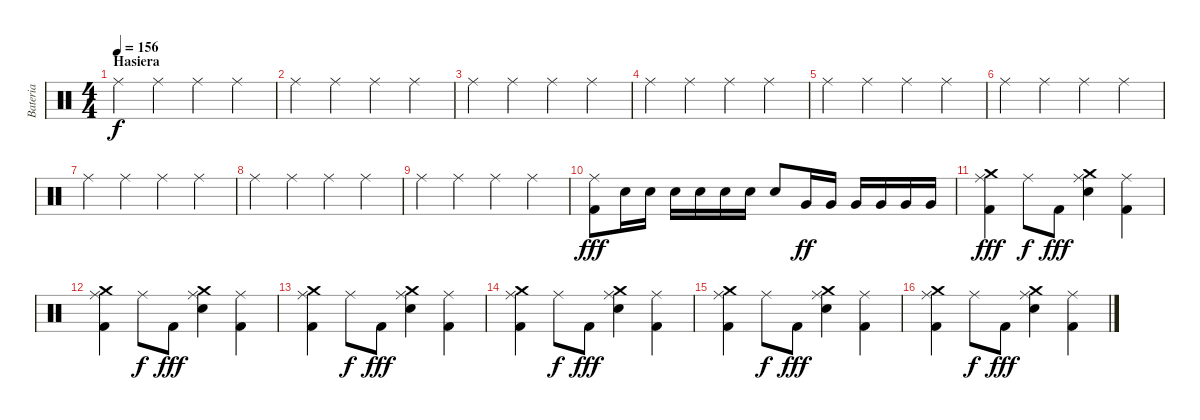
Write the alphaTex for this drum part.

\track ("Bateria" "Bateria") {instrument percussion}
\staff {score}
\articulation defaults
\ts (4 4)
\section ("" "Hasiera")
\tempo 156
\clef neutral
\ks c "Ride (middle)".4{dy f} "Ride (middle)".4 "Ride (middle)".4 "Ride (middle)".4
|
"Ride (middle)".4 "Ride (middle)".4 "Ride (middle)".4 "Ride (middle)".4 |
"Ride (middle)".4 "Ride (middle)".4 "Ride (middle)".4 "Ride (middle)".4 |
"Ride (middle)".4 "Ride (middle)".4 "Ride (middle)".4 "Ride (middle)".4 |
"Ride (middle)".4 "Ride (middle)".4 "Ride (middle)".4 "Ride (middle)".4 |
"Ride (middle)".4 "Ride (middle)".4 "Ride (middle)".4 "Ride (middle)".4 |
"Ride (middle)".4 "Ride (middle)".4 "Ride (middle)".4 "Ride (middle)".4 |
"Ride (middle)".4 "Ride (middle)".4 "Ride (middle)".4 "Ride (middle)".4 |
"Ride (middle)".4 "Ride (middle)".4 "Ride (middle)".4 "Ride (middle)".4 |
("Ride (middle)" "Kick (hit) 2").8{dy fff} "Electric Snare (hit)".16 "Electric Snare (hit)".16 "Electric Snare (hit)".16 "Electric Snare (hit)".16 "Electric Snare (hit)".16 "Electric Snare (hit)".16 "Electric Snare (hit)".8 "Very Low Tom (hit)".16{dy ff} "Very Low Tom (hit)".16 "Very Low Tom (hit)".16 "Very Low Tom (hit)".16 "Very Low Tom (hit)".16 "Very Low Tom (hit)".16 |
("Ride (middle)" "Kick (hit) 2" "Crash medium (hit)").4{dy fff} "Ride (middle)".8{dy f} "Kick (hit) 2".8{dy fff} ("Ride (middle)" "Electric Snare (hit)" "Crash medium (hit)").4 ("Ride (middle)" "Kick (hit) 2").4 |
("Ride (middle)" "Kick (hit) 2" "Crash medium (hit)").4 "Ride (middle)".8{dy f} "Kick (hit) 2".8{dy fff} ("Ride (middle)" "Electric Snare (hit)" "Crash medium (hit)").4 ("Ride (middle)" "Kick (hit) 2").4 |
("Ride (middle)" "Kick (hit) 2" "Crash medium (hit)").4 "Ride (middle)".8{dy f} "Kick (hit) 2".8{dy fff} ("Ride (middle)" "Electric Snare (hit)" "Crash medium (hit)").4 ("Ride (middle)" "Kick (hit) 2").4 |
("Ride (middle)" "Kick (hit) 2" "Crash medium (hit)").4 "Ride (middle)".8{dy f} "Kick (hit) 2".8{dy fff} ("Ride (middle)" "Electric Snare (hit)" "Crash medium (hit)").4 ("Ride (middle)" "Kick (hit) 2").4 |
("Ride (middle)" "Kick (hit) 2" "Crash medium (hit)").4 "Ride (middle)".8{dy f} "Kick (hit) 2".8{dy fff} ("Ride (middle)" "Electric Snare (hit)" "Crash medium (hit)").4 ("Ride (middle)" "Kick (hit) 2").4 |
("Ride (middle)" "Kick (hit) 2" "Crash medium (hit)").4 "Ride (middle)".8{dy f} "Kick (hit) 2".8{dy fff} ("Ride (middle)" "Electric Snare (hit)" "Crash medium (hit)").4 ("Ride (middle)" "Kick (hit) 2").4
